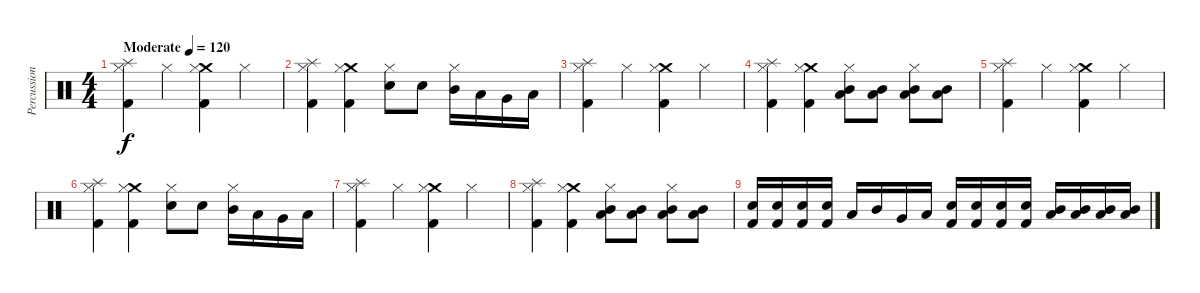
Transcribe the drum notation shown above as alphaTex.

\track ("Percussion" "Percussion") {instrument percussion}
\staff {score}
\articulation defaults
\ts (4 4)
\tempo (120 "Moderate")
\clef neutral
\ks c
("Splash (hit)" "Kick (hit) 2" "Hi-Hat (closed)").4{dy f} "Hi-Hat (closed)".4 ("Crash medium (hit)" "Kick (hit) 2" "Hi-Hat (closed)").4 "Hi-Hat (closed)".4 |
("Splash (hit)" "Kick (hit) 2" "Hi-Hat (closed)").4 ("Crash medium (hit)" "Kick (hit) 2" "Hi-Hat (closed)").4 ("Snare (hit) 2" "Hi-Hat (closed)").8 "Snare (hit) 2".8 ("Mid Tom (hit)" "Hi-Hat (closed)").16 "Low Tom (hit)".16 "Very Low Tom (hit)".16 "Low Floor Tom (hit)".16 |
("Splash (hit)" "Kick (hit) 2" "Hi-Hat (closed)").4 "Hi-Hat (closed)".4 ("Crash medium (hit)" "Kick (hit) 2" "Hi-Hat (closed)").4 "Hi-Hat (closed)".4 |
("Splash (hit)" "Kick (hit) 2" "Hi-Hat (closed)").4 ("Crash medium (hit)" "Kick (hit) 2" "Hi-Hat (closed)").4 ("Mid Tom (hit)" "Low Tom (hit)" "Hi-Hat (closed)").8 ("Mid Tom (hit)" "Low Tom (hit)").8 ("Mid Tom (hit)" "Low Tom (hit)" "Hi-Hat (closed)").8 ("Mid Tom (hit)" "Low Tom (hit)").8 |
("Splash (hit)" "Kick (hit) 2" "Hi-Hat (closed)").4 "Hi-Hat (closed)".4 ("Crash medium (hit)" "Kick (hit) 2" "Hi-Hat (closed)").4 "Hi-Hat (closed)".4 |
("Splash (hit)" "Kick (hit) 2" "Hi-Hat (closed)").4 ("Crash medium (hit)" "Kick (hit) 2" "Hi-Hat (closed)").4 ("Snare (hit) 2" "Hi-Hat (closed)").8 "Snare (hit) 2".8 ("Mid Tom (hit)" "Hi-Hat (closed)").16 "Low Tom (hit)".16 "Very Low Tom (hit)".16 "Low Floor Tom (hit)".16 |
("Splash (hit)" "Kick (hit) 2" "Hi-Hat (closed)").4 "Hi-Hat (closed)".4 ("Crash medium (hit)" "Kick (hit) 2" "Hi-Hat (closed)").4 "Hi-Hat (closed)".4 |
("Splash (hit)" "Kick (hit) 2" "Hi-Hat (closed)").4 ("Crash medium (hit)" "Kick (hit) 2" "Hi-Hat (closed)").4 ("Mid Tom (hit)" "Low Tom (hit)" "Hi-Hat (closed)").8 ("Mid Tom (hit)" "Low Tom (hit)").8 ("Mid Tom (hit)" "Low Tom (hit)" "Hi-Hat (closed)").8 ("Mid Tom (hit)" "Low Tom (hit)").8 |
("Snare (hit) 2" "Kick (hit) 2").16 ("Snare (hit) 2" "Kick (hit) 2").16 ("Snare (hit) 2" "Kick (hit) 2").16 ("Snare (hit) 2" "Kick (hit) 2").16 "Low Tom (hit)".16 "Mid Tom (hit)".16 "Very Low Tom (hit)".16 "Low Tom (hit)".16 ("Snare (hit) 2" "Kick (hit) 2").16 ("Snare (hit) 2" "Kick (hit) 2").16 ("Snare (hit) 2" "Kick (hit) 2").16 ("Snare (hit) 2" "Kick (hit) 2").16 ("Mid Tom (hit)" "Low Tom (hit)").16 ("Mid Tom (hit)" "Low Tom (hit)").16 ("Mid Tom (hit)" "Low Tom (hit)").16 ("Mid Tom (hit)" "Low Tom (hit)").16
